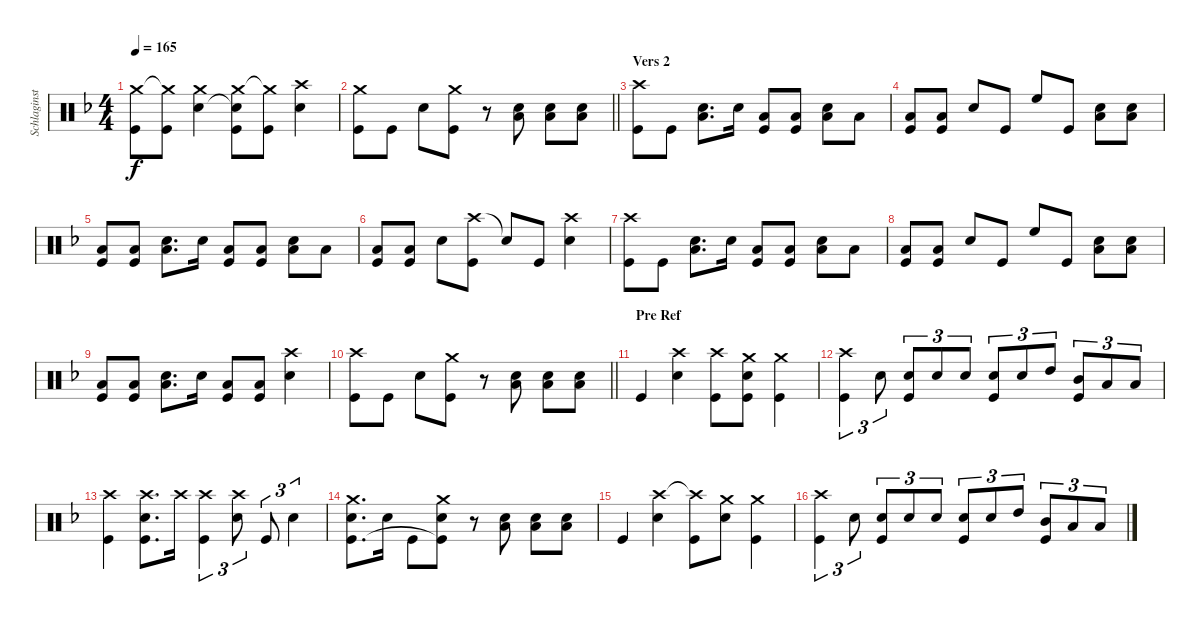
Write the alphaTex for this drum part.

\track ("Schlaginstrumente - Auswahl" "Schlaginst") {instrument percussion}
\staff {score}
\articulation defaults
\ts (4 4)
\tempo 165
\clef neutral
\ks f
("Crash medium (hit)" "Kick (hit)").8{dy f} ("Crash medium (hit)"{t} "Kick (hit)").8 ("Crash medium (hit)" "Snare (hit) 2").4 ("Crash medium (hit)" "Snare (hit) 2"{t} "Kick (hit)").8 ("Crash medium (hit)"{t} "Kick (hit)").8 ("Crash high (hit)" "Snare (hit) 2").4 |
\barLineRight lightlight
("Crash medium (hit)" "Kick (hit)").8 "Kick (hit)".8 "Snare (hit) 2".8 ("Crash medium (hit)" "Kick (hit)").8 r.8 ("Low Tom (hit)" "Snare (hit) 2").8 ("Low Tom (hit)" "Snare (hit) 2").8 ("Low Tom (hit)" "Snare (hit) 2").8 |
\section ("" "Vers 2")
("Crash high (hit)" "Kick (hit)").8 "Kick (hit)".8 ("Low Tom (hit)" "Snare (hit) 2").8{d} "Snare (hit) 2".16 ("Low Tom (hit)" "Kick (hit)").8 ("Low Tom (hit)" "Kick (hit)").8 ("Low Tom (hit)" "Snare (hit) 2").8 "Low Tom (hit)".8 |
("Low Tom (hit)" "Kick (hit)").8 ("Low Tom (hit)" "Kick (hit)").8 "Snare (hit) 2".8 "Kick (hit)".8 "High Floor Tom (hit)".8 "Kick (hit)".8 ("Low Tom (hit)" "Snare (hit) 2").8 ("Low Tom (hit)" "Snare (hit) 2").8 |
("Low Tom (hit)" "Kick (hit)").8 ("Low Tom (hit)" "Kick (hit)").8 ("Low Tom (hit)" "Snare (hit) 2").8{d} "Snare (hit) 2".16 ("Low Tom (hit)" "Kick (hit)").8 ("Low Tom (hit)" "Kick (hit)").8 ("Low Tom (hit)" "Snare (hit) 2").8 "Low Tom (hit)".8 |
("Low Tom (hit)" "Kick (hit)").8 ("Low Tom (hit)" "Kick (hit)").8 "Snare (hit) 2".8 ("Crash high (hit)" "Kick (hit)").8 "Snare (hit)"{t}.8 "Kick (hit)".8 ("Crash high (hit)" "Snare (hit) 2").4 |
("Crash high (hit)" "Kick (hit)").8 "Kick (hit)".8 ("Low Tom (hit)" "Snare (hit) 2").8{d} "Snare (hit) 2".16 ("Low Tom (hit)" "Kick (hit)").8 ("Low Tom (hit)" "Kick (hit)").8 ("Low Tom (hit)" "Snare (hit) 2").8 "Low Tom (hit)".8 |
("Low Tom (hit)" "Kick (hit)").8 ("Low Tom (hit)" "Kick (hit)").8 "Snare (hit) 2".8 "Kick (hit)".8 "High Floor Tom (hit)".8 "Kick (hit)".8 ("Low Tom (hit)" "Snare (hit) 2").8 ("Low Tom (hit)" "Snare (hit) 2").8 |
("Low Tom (hit)" "Kick (hit)").8 ("Low Tom (hit)" "Kick (hit)").8 ("Low Tom (hit)" "Snare (hit) 2").8{d} "Snare (hit) 2".16 ("Low Tom (hit)" "Kick (hit)").8 ("Low Tom (hit)" "Kick (hit)").8 ("Crash high (hit)" "Snare (hit) 2").4 |
\barLineRight lightlight
("Crash high (hit)" "Kick (hit)").8 "Kick (hit)".8 "Snare (hit) 2".8 ("Crash medium (hit)" "Kick (hit)").8 r.8 ("Low Tom (hit)" "Snare (hit) 2").8 ("Low Tom (hit)" "Snare (hit) 2").8 ("Low Tom (hit)" "Snare (hit) 2").8 |
\section ("" "Pre Ref")
"Kick (hit)".4 ("Crash high (hit)" "Snare (hit) 2").4 ("Crash high (hit)" "Kick (hit)").8 ("Crash medium (hit)" "Snare (hit) 2" "Kick (hit)").8 ("Crash medium (hit)" "Kick (hit)").4 |
("Crash high (hit)" "Kick (hit)").4{tu (3 2)} "Snare (hit) 2".8{tu (3 2)} ("Snare (hit) 2" "Kick (hit)").8{tu (3 2)} "Snare (hit) 2".8{tu (3 2)} "Snare (hit) 2".8{tu (3 2)} ("Snare (hit) 2" "Kick (hit)").8{tu (3 2)} "Snare (hit) 2".8{tu (3 2)} "High Tom (hit)".8{tu (3 2)} ("Mid Tom (hit)" "Kick (hit)").8{tu (3 2)} "Low Tom (hit)".8{tu (3 2)} "Low Tom (hit)".8{tu (3 2)} |
("Crash high (hit)" "Kick (hit)").4 ("Crash high (hit)" "Snare (hit) 2" "Kick (hit)").8{d} "Crash high (hit)".16 ("Crash high (hit)" "Kick (hit)").4{tu (3 2)} ("Crash high (hit)" "Snare (hit) 2").8{tu (3 2)} "Kick (hit)".8{tu (3 2)} "Snare (hit) 2".4{tu (3 2)} |
("Crash medium (hit)" "Snare (hit) 2" "Kick (hit)").8{d} "Snare (hit) 2".16 "Kick (hit)".8 ("Crash medium (hit)" "Snare (hit) 2" "Kick (hit)"{t}).8 r.8 ("Low Tom (hit)" "Snare (hit) 2").8 ("Low Tom (hit)" "Snare (hit) 2").8 ("Low Tom (hit)" "Snare (hit) 2").8 |
"Kick (hit)".4 ("Crash high (hit)" "Snare (hit) 2").4 ("Crash high (hit)"{t} "Kick (hit)").8 ("Crash medium (hit)" "Snare (hit) 2").8 ("Crash medium (hit)" "Kick (hit)").4 |
("Crash high (hit)" "Kick (hit)").4{tu (3 2)} "Snare (hit) 2".8{tu (3 2)} ("Snare (hit) 2" "Kick (hit)").8{tu (3 2)} "Snare (hit) 2".8{tu (3 2)} "Snare (hit) 2".8{tu (3 2)} ("Snare (hit) 2" "Kick (hit)").8{tu (3 2)} "Snare (hit) 2".8{tu (3 2)} "High Tom (hit)".8{tu (3 2)} ("Mid Tom (hit)" "Kick (hit)").8{tu (3 2)} "Low Tom (hit)".8{tu (3 2)} "Low Tom (hit)".8{tu (3 2)}
